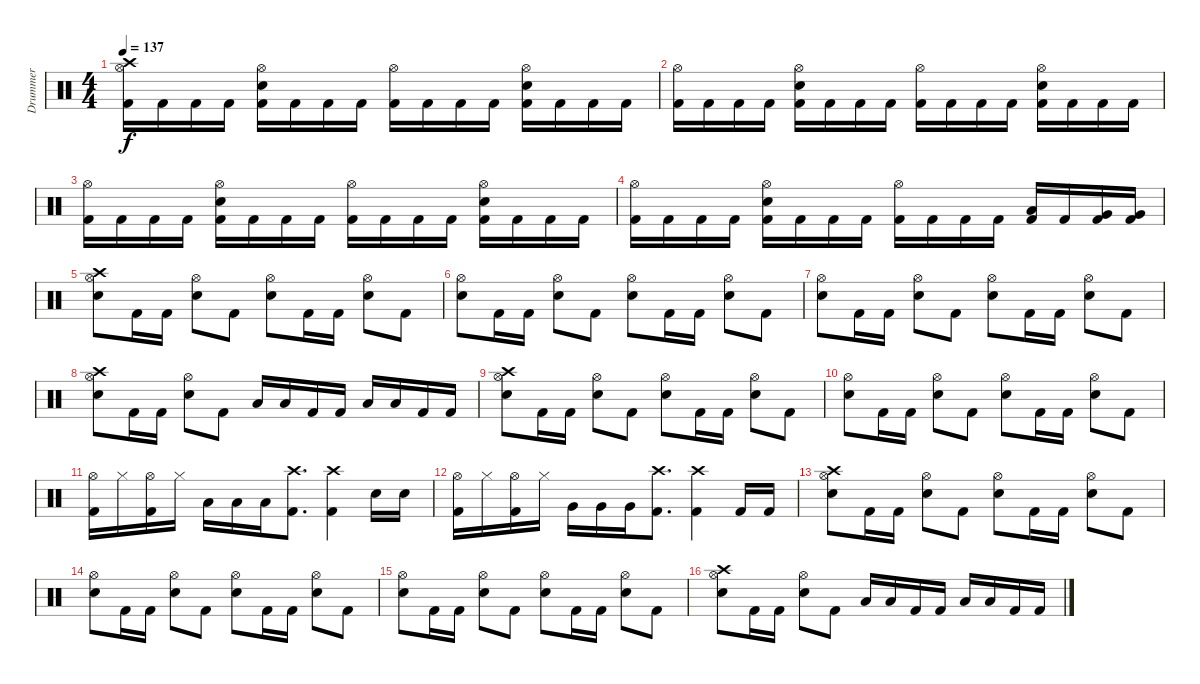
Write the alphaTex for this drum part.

\track ("Drummer" "Drummer") {instrument percussion}
\staff {score}
\articulation defaults
\ts (4 4)
\tempo 137
\clef neutral
\ks c
("Crash high (hit)" "Hi-Hat (open)" "Kick (hit) 2").16{dy f} "Kick (hit) 2".16 "Kick (hit) 2".16 "Kick (hit) 2".16 ("Electric Snare (hit)" "Hi-Hat (open)" "Kick (hit) 2").16 "Kick (hit) 2".16 "Kick (hit) 2".16 "Kick (hit) 2".16 ("Hi-Hat (open)" "Kick (hit) 2").16 "Kick (hit) 2".16 "Kick (hit) 2".16 "Kick (hit) 2".16 ("Electric Snare (hit)" "Hi-Hat (open)" "Kick (hit) 2").16 "Kick (hit) 2".16 "Kick (hit) 2".16 "Kick (hit) 2".16 |
("Hi-Hat (open)" "Kick (hit) 2").16 "Kick (hit) 2".16 "Kick (hit) 2".16 "Kick (hit) 2".16 ("Electric Snare (hit)" "Hi-Hat (open)" "Kick (hit) 2").16 "Kick (hit) 2".16 "Kick (hit) 2".16 "Kick (hit) 2".16 ("Hi-Hat (open)" "Kick (hit) 2").16 "Kick (hit) 2".16 "Kick (hit) 2".16 "Kick (hit) 2".16 ("Electric Snare (hit)" "Hi-Hat (open)" "Kick (hit) 2").16 "Kick (hit) 2".16 "Kick (hit) 2".16 "Kick (hit) 2".16 |
("Hi-Hat (open)" "Kick (hit) 2").16 "Kick (hit) 2".16 "Kick (hit) 2".16 "Kick (hit) 2".16 ("Electric Snare (hit)" "Hi-Hat (open)" "Kick (hit) 2").16 "Kick (hit) 2".16 "Kick (hit) 2".16 "Kick (hit) 2".16 ("Hi-Hat (open)" "Kick (hit) 2").16 "Kick (hit) 2".16 "Kick (hit) 2".16 "Kick (hit) 2".16 ("Electric Snare (hit)" "Hi-Hat (open)" "Kick (hit) 2").16 "Kick (hit) 2".16 "Kick (hit) 2".16 "Kick (hit) 2".16 |
("Hi-Hat (open)" "Kick (hit) 2").16 "Kick (hit) 2".16 "Kick (hit) 2".16 "Kick (hit) 2".16 ("Electric Snare (hit)" "Hi-Hat (open)" "Kick (hit) 2").16 "Kick (hit) 2".16 "Kick (hit) 2".16 "Kick (hit) 2".16 ("Hi-Hat (open)" "Kick (hit) 2").16 "Kick (hit) 2".16 "Kick (hit) 2".16 "Kick (hit) 2".16 ("Low Tom (hit)" "Kick (hit) 2").16 "Kick (hit) 2".16 ("Very Low Tom (hit)" "Kick (hit) 2").16 ("Very Low Tom (hit)" "Kick (hit) 2").16 |
("Crash high (hit)" "Hi-Hat (open)" "Electric Snare (hit)").8 "Kick (hit) 2".16 "Kick (hit) 2".16 ("Hi-Hat (open)" "Electric Snare (hit)").8 "Kick (hit) 2".8 ("Hi-Hat (open)" "Electric Snare (hit)").8 "Kick (hit) 2".16 "Kick (hit) 2".16 ("Hi-Hat (open)" "Electric Snare (hit)").8 "Kick (hit) 2".8 |
("Hi-Hat (open)" "Electric Snare (hit)").8 "Kick (hit) 2".16 "Kick (hit) 2".16 ("Hi-Hat (open)" "Electric Snare (hit)").8 "Kick (hit) 2".8 ("Hi-Hat (open)" "Electric Snare (hit)").8 "Kick (hit) 2".16 "Kick (hit) 2".16 ("Hi-Hat (open)" "Electric Snare (hit)").8 "Kick (hit) 2".8 |
("Hi-Hat (open)" "Electric Snare (hit)").8 "Kick (hit) 2".16 "Kick (hit) 2".16 ("Hi-Hat (open)" "Electric Snare (hit)").8 "Kick (hit) 2".8 ("Hi-Hat (open)" "Electric Snare (hit)").8 "Kick (hit) 2".16 "Kick (hit) 2".16 ("Hi-Hat (open)" "Electric Snare (hit)").8 "Kick (hit) 2".8 |
("Crash high (hit)" "Hi-Hat (open)" "Electric Snare (hit)").8 "Kick (hit) 2".16 "Kick (hit) 2".16 ("Hi-Hat (open)" "Electric Snare (hit)").8 "Kick (hit) 2".8 "Low Tom (hit)".16 "Low Tom (hit)".16 "Kick (hit) 2".16 "Kick (hit) 2".16 "Low Floor Tom (hit)".16 "Low Floor Tom (hit)".16 "Kick (hit) 2".16 "Kick (hit) 2".16 |
("Crash high (hit)" "Hi-Hat (open)" "Electric Snare (hit)").8 "Kick (hit) 2".16 "Kick (hit) 2".16 ("Hi-Hat (open)" "Electric Snare (hit)").8 "Kick (hit) 2".8 ("Hi-Hat (open)" "Electric Snare (hit)").8 "Kick (hit) 2".16 "Kick (hit) 2".16 ("Hi-Hat (open)" "Electric Snare (hit)").8 "Kick (hit) 2".8 |
("Hi-Hat (open)" "Electric Snare (hit)").8 "Kick (hit) 2".16 "Kick (hit) 2".16 ("Hi-Hat (open)" "Electric Snare (hit)").8 "Kick (hit) 2".8 ("Hi-Hat (open)" "Electric Snare (hit)").8 "Kick (hit) 2".16 "Kick (hit) 2".16 ("Hi-Hat (open)" "Electric Snare (hit)").8 "Kick (hit) 2".8 |
("Hi-Hat (open)" "Kick (hit) 2").16 "Hi-Hat (closed)".16 ("Hi-Hat (open)" "Kick (hit) 2").16 "Hi-Hat (closed)".16 "Low Tom (hit)".16 "Low Tom (hit)".16 "Low Tom (hit)".16 ("Crash high (hit)" "Kick (hit) 2").8{d} ("Crash high (hit)" "Kick (hit) 2").4 "Electric Snare (hit)".16 "Electric Snare (hit)".16 |
("Hi-Hat (open)" "Kick (hit) 2").16 "Hi-Hat (closed)".16 ("Hi-Hat (open)" "Kick (hit) 2").16 "Hi-Hat (closed)".16 "Very Low Tom (hit)".16 "Very Low Tom (hit)".16 "Very Low Tom (hit)".16 ("Crash high (hit)" "Kick (hit) 2").8{d} ("Crash high (hit)" "Kick (hit) 2").4 "Kick (hit) 2".16 "Kick (hit) 2".16 |
("Crash high (hit)" "Hi-Hat (open)" "Electric Snare (hit)").8 "Kick (hit) 2".16 "Kick (hit) 2".16 ("Hi-Hat (open)" "Electric Snare (hit)").8 "Kick (hit) 2".8 ("Hi-Hat (open)" "Electric Snare (hit)").8 "Kick (hit) 2".16 "Kick (hit) 2".16 ("Hi-Hat (open)" "Electric Snare (hit)").8 "Kick (hit) 2".8 |
("Hi-Hat (open)" "Electric Snare (hit)").8 "Kick (hit) 2".16 "Kick (hit) 2".16 ("Hi-Hat (open)" "Electric Snare (hit)").8 "Kick (hit) 2".8 ("Hi-Hat (open)" "Electric Snare (hit)").8 "Kick (hit) 2".16 "Kick (hit) 2".16 ("Hi-Hat (open)" "Electric Snare (hit)").8 "Kick (hit) 2".8 |
("Hi-Hat (open)" "Electric Snare (hit)").8 "Kick (hit) 2".16 "Kick (hit) 2".16 ("Hi-Hat (open)" "Electric Snare (hit)").8 "Kick (hit) 2".8 ("Hi-Hat (open)" "Electric Snare (hit)").8 "Kick (hit) 2".16 "Kick (hit) 2".16 ("Hi-Hat (open)" "Electric Snare (hit)").8 "Kick (hit) 2".8 |
("Crash high (hit)" "Hi-Hat (open)" "Electric Snare (hit)").8 "Kick (hit) 2".16 "Kick (hit) 2".16 ("Hi-Hat (open)" "Electric Snare (hit)").8 "Kick (hit) 2".8 "Low Tom (hit)".16 "Low Tom (hit)".16 "Kick (hit) 2".16 "Kick (hit) 2".16 "Low Floor Tom (hit)".16 "Low Floor Tom (hit)".16 "Kick (hit) 2".16 "Kick (hit) 2".16
